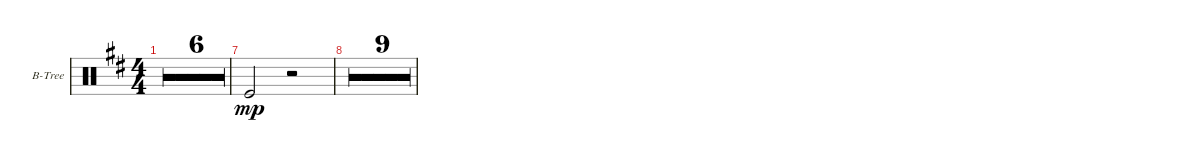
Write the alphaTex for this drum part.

\defaultSystemsLayout 4
\bracketExtendMode groupsimilarinstruments
\firstSystemTrackNameOrientation horizontal
\otherSystemsTrackNameOrientation horizontal
\track ("Bell Tree" "B-Tree") {multiBarRest instrument percussion}
\staff {score}
\articulation defaults
\ts (4 4)
\tempo 84
\clef neutral
\ks bminor
r.1{dy mp} |
r.1 |
r.1 |
r.1 |
r.1 |
r.1 |
"Kick (hit)".2 r.2 |
r.2 r.2 |
r.1 |
r.1 |
r.1 |
r.1 |
r.1 |
r.1 |
r.1 |
r.1
